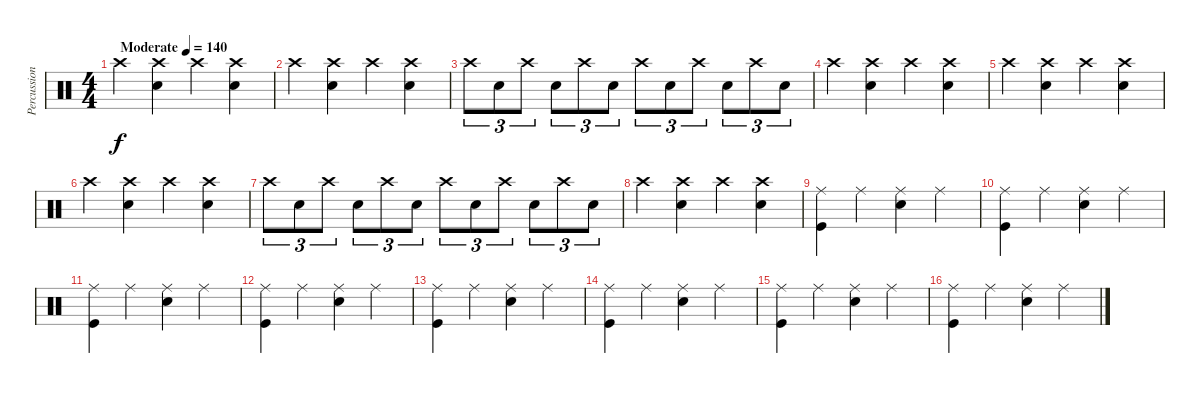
\track ("Percussion" "Percussion") {instrument percussion}
\staff {score}
\articulation defaults
\ts (4 4)
\tempo (140 "Moderate")
\clef neutral
\ks c "Crash high (hit)".4{dy f}
("Crash high (hit)" "Snare (hit) 2").4 "Crash high (hit)".4 ("Crash high (hit)" "Snare (hit) 2").4 |
"Crash high (hit)".4 ("Crash high (hit)" "Snare (hit) 2").4 "Crash high (hit)".4 ("Crash high (hit)" "Snare (hit) 2").4 |
"Crash high (hit)".8{tu (3 2)} "Snare (hit) 2".8{tu (3 2)} "Crash high (hit)".8{tu (3 2)} "Snare (hit) 2".8{tu (3 2)} "Crash high (hit)".8{tu (3 2)} "Snare (hit) 2".8{tu (3 2)} "Crash high (hit)".8{tu (3 2)} "Snare (hit) 2".8{tu (3 2)} "Crash high (hit)".8{tu (3 2)} "Snare (hit) 2".8{tu (3 2)} "Crash high (hit)".8{tu (3 2)} "Snare (hit) 2".8{tu (3 2)} |
"Crash high (hit)".4 ("Crash high (hit)" "Snare (hit) 2").4 "Crash high (hit)".4 ("Crash high (hit)" "Snare (hit) 2").4 |
"Crash high (hit)".4 ("Crash high (hit)" "Snare (hit) 2").4 "Crash high (hit)".4 ("Crash high (hit)" "Snare (hit) 2").4 |
"Crash high (hit)".4 ("Crash high (hit)" "Snare (hit) 2").4 "Crash high (hit)".4 ("Crash high (hit)" "Snare (hit) 2").4 |
"Crash high (hit)".8{tu (3 2)} "Snare (hit) 2".8{tu (3 2)} "Crash high (hit)".8{tu (3 2)} "Snare (hit) 2".8{tu (3 2)} "Crash high (hit)".8{tu (3 2)} "Snare (hit) 2".8{tu (3 2)} "Crash high (hit)".8{tu (3 2)} "Snare (hit) 2".8{tu (3 2)} "Crash high (hit)".8{tu (3 2)} "Snare (hit) 2".8{tu (3 2)} "Crash high (hit)".8{tu (3 2)} "Snare (hit) 2".8{tu (3 2)} |
"Crash high (hit)".4 ("Crash high (hit)" "Snare (hit) 2").4 "Crash high (hit)".4 ("Crash high (hit)" "Snare (hit) 2").4 |
("Ride (middle)" "Kick (hit)").4 "Ride (middle)".4 ("Ride (middle)" "Snare (hit) 2").4 "Ride (middle)".4 |
("Ride (middle)" "Kick (hit)").4 "Ride (middle)".4 ("Ride (middle)" "Snare (hit) 2").4 "Ride (middle)".4 |
("Ride (middle)" "Kick (hit)").4 "Ride (middle)".4 ("Ride (middle)" "Snare (hit) 2").4 "Ride (middle)".4 |
("Ride (middle)" "Kick (hit)").4 "Ride (middle)".4 ("Ride (middle)" "Snare (hit) 2").4 "Ride (middle)".4 |
("Ride (middle)" "Kick (hit)").4 "Ride (middle)".4 ("Ride (middle)" "Snare (hit) 2").4 "Ride (middle)".4 |
("Ride (middle)" "Kick (hit)").4 "Ride (middle)".4 ("Ride (middle)" "Snare (hit) 2").4 "Ride (middle)".4 |
("Ride (middle)" "Kick (hit)").4 "Ride (middle)".4 ("Ride (middle)" "Snare (hit) 2").4 "Ride (middle)".4 |
("Ride (middle)" "Kick (hit)").4 "Ride (middle)".4 ("Ride (middle)" "Snare (hit) 2").4 "Ride (middle)".4
